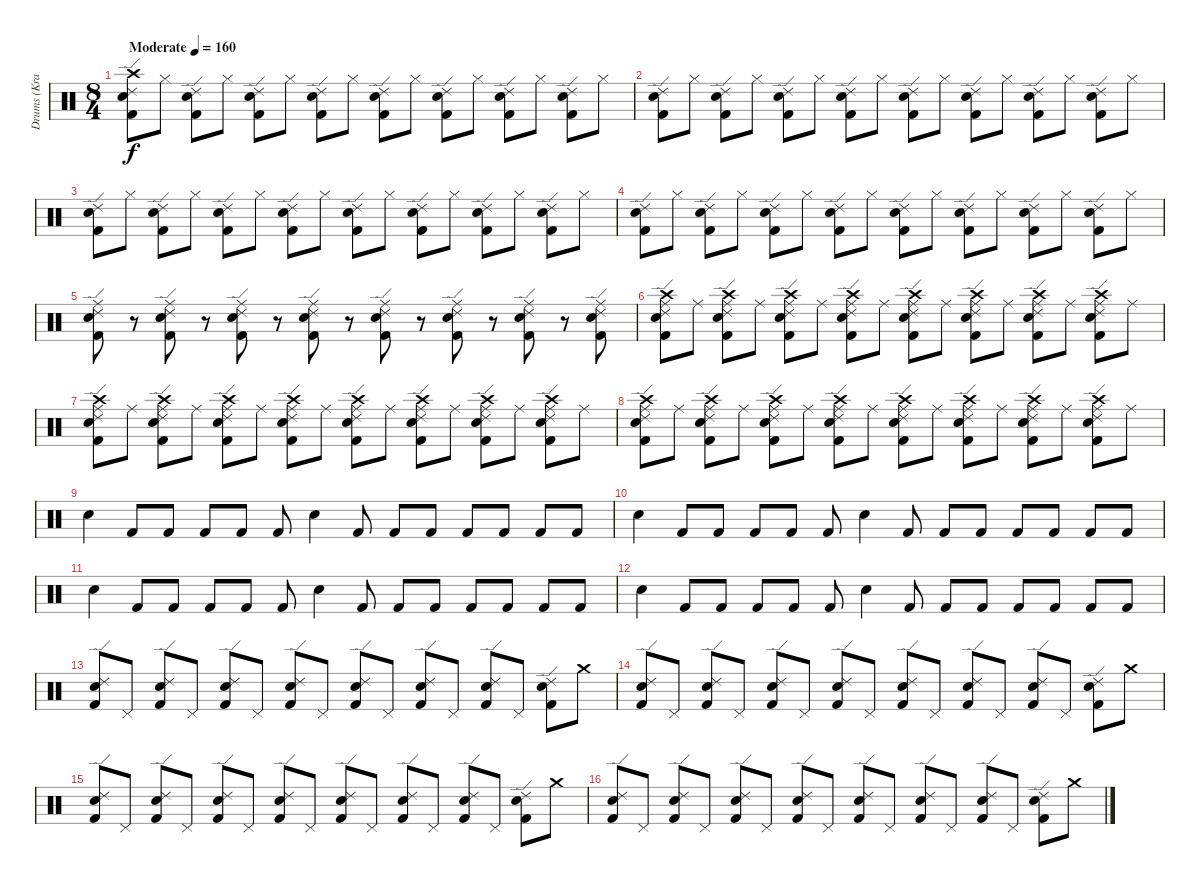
\track ("Drums (Kram)" "Drums (Kra") {instrument percussion}
\staff {score}
\articulation defaults
\ts (8 4)
\tempo (160 "Moderate")
\clef neutral
\ks c
("Crash high (hit)" "Kick (hit) 2" "Ride (edge) 2" "Electric Snare (hit)").8{dy f} "Hi-Hat (closed)".8 ("Kick (hit) 2" "Ride (edge) 2" "Electric Snare (hit)").8 "Hi-Hat (closed)".8 ("Kick (hit) 2" "Ride (edge) 2" "Electric Snare (hit)").8 "Hi-Hat (closed)".8 ("Kick (hit) 2" "Ride (edge) 2" "Electric Snare (hit)").8 "Hi-Hat (closed)".8 ("Kick (hit) 2" "Ride (edge) 2" "Electric Snare (hit)").8 "Hi-Hat (closed)".8 ("Kick (hit) 2" "Ride (edge) 2" "Electric Snare (hit)").8 "Hi-Hat (closed)".8 ("Kick (hit) 2" "Ride (edge) 2" "Electric Snare (hit)").8 "Hi-Hat (closed)".8 ("Kick (hit) 2" "Ride (edge) 2" "Electric Snare (hit)").8 "Hi-Hat (closed)".8 |
("Kick (hit) 2" "Ride (edge) 2" "Electric Snare (hit)").8 "Hi-Hat (closed)".8 ("Kick (hit) 2" "Ride (edge) 2" "Electric Snare (hit)").8 "Hi-Hat (closed)".8 ("Kick (hit) 2" "Ride (edge) 2" "Electric Snare (hit)").8 "Hi-Hat (closed)".8 ("Kick (hit) 2" "Ride (edge) 2" "Electric Snare (hit)").8 "Hi-Hat (closed)".8 ("Kick (hit) 2" "Ride (edge) 2" "Electric Snare (hit)").8 "Hi-Hat (closed)".8 ("Kick (hit) 2" "Ride (edge) 2" "Electric Snare (hit)").8 "Hi-Hat (closed)".8 ("Kick (hit) 2" "Ride (edge) 2" "Electric Snare (hit)").8 "Hi-Hat (closed)".8 ("Kick (hit) 2" "Ride (edge) 2" "Electric Snare (hit)").8 "Hi-Hat (closed)".8 |
("Kick (hit) 2" "Ride (edge) 2" "Electric Snare (hit)").8 "Hi-Hat (closed)".8 ("Kick (hit) 2" "Ride (edge) 2" "Electric Snare (hit)").8 "Hi-Hat (closed)".8 ("Kick (hit) 2" "Ride (edge) 2" "Electric Snare (hit)").8 "Hi-Hat (closed)".8 ("Kick (hit) 2" "Ride (edge) 2" "Electric Snare (hit)").8 "Hi-Hat (closed)".8 ("Kick (hit) 2" "Ride (edge) 2" "Electric Snare (hit)").8 "Hi-Hat (closed)".8 ("Kick (hit) 2" "Ride (edge) 2" "Electric Snare (hit)").8 "Hi-Hat (closed)".8 ("Kick (hit) 2" "Ride (edge) 2" "Electric Snare (hit)").8 "Hi-Hat (closed)".8 ("Kick (hit) 2" "Ride (edge) 2" "Electric Snare (hit)").8 "Hi-Hat (closed)".8 |
("Kick (hit) 2" "Ride (edge) 2" "Electric Snare (hit)").8 "Hi-Hat (closed)".8 ("Kick (hit) 2" "Ride (edge) 2" "Electric Snare (hit)").8 "Hi-Hat (closed)".8 ("Kick (hit) 2" "Ride (edge) 2" "Electric Snare (hit)").8 "Hi-Hat (closed)".8 ("Kick (hit) 2" "Ride (edge) 2" "Electric Snare (hit)").8 "Hi-Hat (closed)".8 ("Kick (hit) 2" "Ride (edge) 2" "Electric Snare (hit)").8 "Hi-Hat (closed)".8 ("Kick (hit) 2" "Ride (edge) 2" "Electric Snare (hit)").8 "Hi-Hat (closed)".8 ("Kick (hit) 2" "Ride (edge) 2" "Electric Snare (hit)").8 "Hi-Hat (closed)".8 ("Kick (hit) 2" "Ride (edge) 2" "Electric Snare (hit)").8 "Hi-Hat (closed)".8 |
("Ride (middle)" "Kick (hit) 2" "Ride (edge) 2" "Electric Snare (hit)").8 r.8 ("Ride (middle)" "Kick (hit) 2" "Ride (edge) 2" "Electric Snare (hit)").8 r.8 ("Ride (middle)" "Kick (hit) 2" "Ride (edge) 2" "Electric Snare (hit)").8 r.8 ("Ride (middle)" "Kick (hit) 2" "Ride (edge) 2" "Electric Snare (hit)").8 r.8 ("Ride (middle)" "Kick (hit) 2" "Ride (edge) 2" "Electric Snare (hit)").8 r.8 ("Ride (middle)" "Kick (hit) 2" "Ride (edge) 2" "Electric Snare (hit)").8 r.8 ("Ride (middle)" "Kick (hit) 2" "Ride (edge) 2" "Electric Snare (hit)").8 r.8 ("Ride (middle)" "Kick (hit) 2" "Ride (edge) 2" "Electric Snare (hit)").8 |
("Crash high (hit)" "Ride (middle)" "Kick (hit) 2" "Ride (edge) 2" "Electric Snare (hit)").8 "Ride (middle)".8 ("Crash high (hit)" "Ride (middle)" "Kick (hit) 2" "Ride (edge) 2" "Electric Snare (hit)").8 "Ride (middle)".8 ("Crash high (hit)" "Ride (middle)" "Kick (hit) 2" "Ride (edge) 2" "Electric Snare (hit)").8 "Ride (middle)".8 ("Crash high (hit)" "Ride (middle)" "Kick (hit) 2" "Ride (edge) 2" "Electric Snare (hit)").8 "Ride (middle)".8 ("Crash high (hit)" "Ride (middle)" "Kick (hit) 2" "Ride (edge) 2" "Electric Snare (hit)").8 "Ride (middle)".8 ("Crash high (hit)" "Ride (middle)" "Kick (hit) 2" "Ride (edge) 2" "Electric Snare (hit)").8 "Ride (middle)".8 ("Crash high (hit)" "Ride (middle)" "Kick (hit) 2" "Ride (edge) 2" "Electric Snare (hit)").8 "Ride (middle)".8 ("Crash high (hit)" "Ride (middle)" "Kick (hit) 2" "Ride (edge) 2" "Electric Snare (hit)").8 "Ride (middle)".8 |
("Crash high (hit)" "Ride (middle)" "Kick (hit) 2" "Ride (edge) 2" "Electric Snare (hit)").8 "Ride (middle)".8 ("Crash high (hit)" "Ride (middle)" "Kick (hit) 2" "Ride (edge) 2" "Electric Snare (hit)").8 "Ride (middle)".8 ("Crash high (hit)" "Ride (middle)" "Kick (hit) 2" "Ride (edge) 2" "Electric Snare (hit)").8 "Ride (middle)".8 ("Crash high (hit)" "Ride (middle)" "Kick (hit) 2" "Ride (edge) 2" "Electric Snare (hit)").8 "Ride (middle)".8 ("Crash high (hit)" "Ride (middle)" "Kick (hit) 2" "Ride (edge) 2" "Electric Snare (hit)").8 "Ride (middle)".8 ("Crash high (hit)" "Ride (middle)" "Kick (hit) 2" "Ride (edge) 2" "Electric Snare (hit)").8 "Ride (middle)".8 ("Crash high (hit)" "Ride (middle)" "Kick (hit) 2" "Ride (edge) 2" "Electric Snare (hit)").8 "Ride (middle)".8 ("Crash high (hit)" "Ride (middle)" "Kick (hit) 2" "Ride (edge) 2" "Electric Snare (hit)").8 "Ride (middle)".8 |
("Crash high (hit)" "Ride (middle)" "Kick (hit) 2" "Ride (edge) 2" "Electric Snare (hit)").8 "Ride (middle)".8 ("Crash high (hit)" "Ride (middle)" "Kick (hit) 2" "Ride (edge) 2" "Electric Snare (hit)").8 "Ride (middle)".8 ("Crash high (hit)" "Ride (middle)" "Kick (hit) 2" "Ride (edge) 2" "Electric Snare (hit)").8 "Ride (middle)".8 ("Crash high (hit)" "Ride (middle)" "Kick (hit) 2" "Ride (edge) 2" "Electric Snare (hit)").8 "Ride (middle)".8 ("Crash high (hit)" "Ride (middle)" "Kick (hit) 2" "Ride (edge) 2" "Electric Snare (hit)").8 "Ride (middle)".8 ("Crash high (hit)" "Ride (middle)" "Kick (hit) 2" "Ride (edge) 2" "Electric Snare (hit)").8 "Ride (middle)".8 ("Crash high (hit)" "Ride (middle)" "Kick (hit) 2" "Ride (edge) 2" "Electric Snare (hit)").8 "Ride (middle)".8 ("Crash high (hit)" "Ride (middle)" "Kick (hit) 2" "Ride (edge) 2" "Electric Snare (hit)").8 "Ride (middle)".8 |
"Electric Snare (hit)".4 "Kick (hit) 2".8 "Kick (hit) 2".8 "Kick (hit) 2".8 "Kick (hit) 2".8 "Kick (hit) 2".8 "Electric Snare (hit)".4 "Kick (hit) 2".8 "Kick (hit) 2".8 "Kick (hit) 2".8 "Kick (hit) 2".8 "Kick (hit) 2".8 "Kick (hit) 2".8 "Kick (hit) 2".8 |
"Electric Snare (hit)".4 "Kick (hit) 2".8 "Kick (hit) 2".8 "Kick (hit) 2".8 "Kick (hit) 2".8 "Kick (hit) 2".8 "Electric Snare (hit)".4 "Kick (hit) 2".8 "Kick (hit) 2".8 "Kick (hit) 2".8 "Kick (hit) 2".8 "Kick (hit) 2".8 "Kick (hit) 2".8 "Kick (hit) 2".8 |
"Electric Snare (hit)".4 "Kick (hit) 2".8 "Kick (hit) 2".8 "Kick (hit) 2".8 "Kick (hit) 2".8 "Kick (hit) 2".8 "Electric Snare (hit)".4 "Kick (hit) 2".8 "Kick (hit) 2".8 "Kick (hit) 2".8 "Kick (hit) 2".8 "Kick (hit) 2".8 "Kick (hit) 2".8 "Kick (hit) 2".8 |
"Electric Snare (hit)".4 "Kick (hit) 2".8 "Kick (hit) 2".8 "Kick (hit) 2".8 "Kick (hit) 2".8 "Kick (hit) 2".8 "Electric Snare (hit)".4 "Kick (hit) 2".8 "Kick (hit) 2".8 "Kick (hit) 2".8 "Kick (hit) 2".8 "Kick (hit) 2".8 "Kick (hit) 2".8 "Kick (hit) 2".8 |
("Kick (hit) 2" "Ride (edge) 2" "Electric Snare (hit)").8 "Pedal Hi-Hat (hit)".8 ("Kick (hit) 2" "Ride (edge) 2" "Electric Snare (hit)").8 "Pedal Hi-Hat (hit)".8 ("Kick (hit) 2" "Ride (edge) 2" "Electric Snare (hit)").8 "Pedal Hi-Hat (hit)".8 ("Kick (hit) 2" "Ride (edge) 2" "Electric Snare (hit)").8 "Pedal Hi-Hat (hit)".8 ("Kick (hit) 2" "Ride (edge) 2" "Electric Snare (hit)").8 "Pedal Hi-Hat (hit)".8 ("Kick (hit) 2" "Ride (edge) 2" "Electric Snare (hit)").8 "Pedal Hi-Hat (hit)".8 ("Kick (hit) 2" "Ride (edge) 2" "Electric Snare (hit)").8 "Pedal Hi-Hat (hit)".8 ("Kick (hit) 2" "Ride (edge) 2" "Electric Snare (hit)").8 "Crash medium (hit)".8 |
("Kick (hit) 2" "Ride (edge) 2" "Electric Snare (hit)").8 "Pedal Hi-Hat (hit)".8 ("Kick (hit) 2" "Ride (edge) 2" "Electric Snare (hit)").8 "Pedal Hi-Hat (hit)".8 ("Kick (hit) 2" "Ride (edge) 2" "Electric Snare (hit)").8 "Pedal Hi-Hat (hit)".8 ("Kick (hit) 2" "Ride (edge) 2" "Electric Snare (hit)").8 "Pedal Hi-Hat (hit)".8 ("Kick (hit) 2" "Ride (edge) 2" "Electric Snare (hit)").8 "Pedal Hi-Hat (hit)".8 ("Kick (hit) 2" "Ride (edge) 2" "Electric Snare (hit)").8 "Pedal Hi-Hat (hit)".8 ("Kick (hit) 2" "Ride (edge) 2" "Electric Snare (hit)").8 "Pedal Hi-Hat (hit)".8 ("Kick (hit) 2" "Ride (edge) 2" "Electric Snare (hit)").8 "Crash medium (hit)".8 |
("Kick (hit) 2" "Ride (edge) 2" "Electric Snare (hit)").8 "Pedal Hi-Hat (hit)".8 ("Kick (hit) 2" "Ride (edge) 2" "Electric Snare (hit)").8 "Pedal Hi-Hat (hit)".8 ("Kick (hit) 2" "Ride (edge) 2" "Electric Snare (hit)").8 "Pedal Hi-Hat (hit)".8 ("Kick (hit) 2" "Ride (edge) 2" "Electric Snare (hit)").8 "Pedal Hi-Hat (hit)".8 ("Kick (hit) 2" "Ride (edge) 2" "Electric Snare (hit)").8 "Pedal Hi-Hat (hit)".8 ("Kick (hit) 2" "Ride (edge) 2" "Electric Snare (hit)").8 "Pedal Hi-Hat (hit)".8 ("Kick (hit) 2" "Ride (edge) 2" "Electric Snare (hit)").8 "Pedal Hi-Hat (hit)".8 ("Kick (hit) 2" "Ride (edge) 2" "Electric Snare (hit)").8 "Crash medium (hit)".8 |
("Kick (hit) 2" "Ride (edge) 2" "Electric Snare (hit)").8 "Pedal Hi-Hat (hit)".8 ("Kick (hit) 2" "Ride (edge) 2" "Electric Snare (hit)").8 "Pedal Hi-Hat (hit)".8 ("Kick (hit) 2" "Ride (edge) 2" "Electric Snare (hit)").8 "Pedal Hi-Hat (hit)".8 ("Kick (hit) 2" "Ride (edge) 2" "Electric Snare (hit)").8 "Pedal Hi-Hat (hit)".8 ("Kick (hit) 2" "Ride (edge) 2" "Electric Snare (hit)").8 "Pedal Hi-Hat (hit)".8 ("Kick (hit) 2" "Ride (edge) 2" "Electric Snare (hit)").8 "Pedal Hi-Hat (hit)".8 ("Kick (hit) 2" "Ride (edge) 2" "Electric Snare (hit)").8 "Pedal Hi-Hat (hit)".8 ("Kick (hit) 2" "Ride (edge) 2" "Electric Snare (hit)").8 "Crash medium (hit)".8
